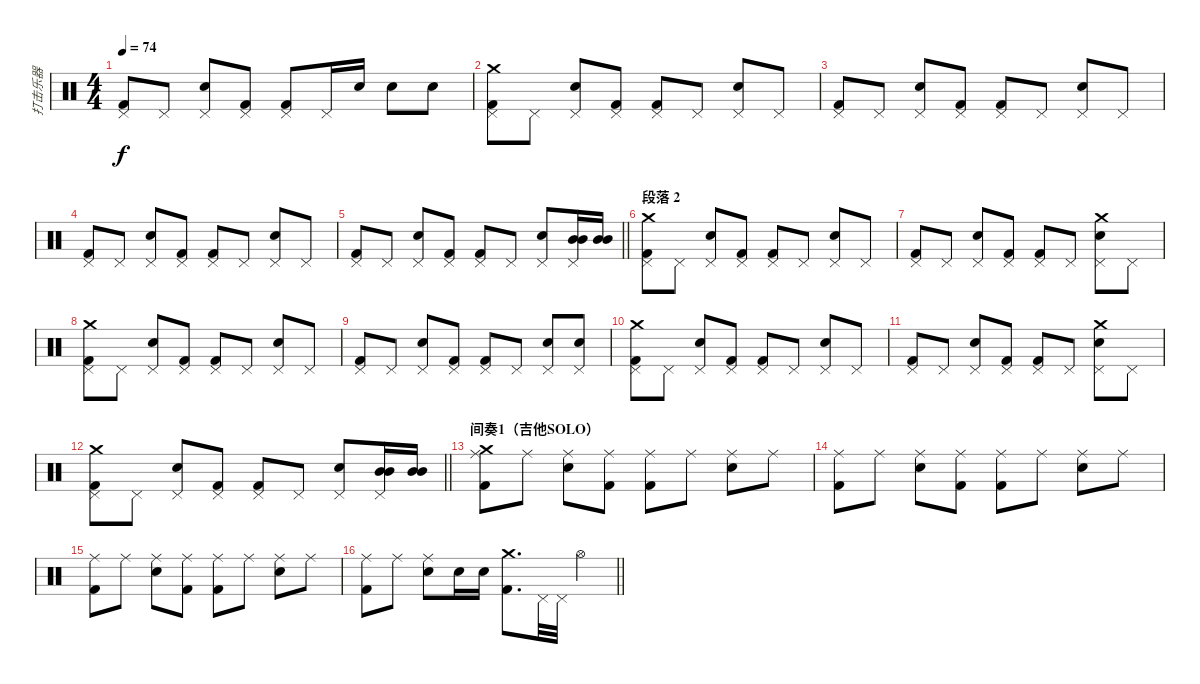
\track ("打击乐器" "打击乐器") {instrument percussion}
\staff {score}
\articulation defaults
\ts (4 4)
\tempo 74
\clef neutral
\ks c
("Pedal Hi-Hat (hit)" "Kick (hit) 2").8{dy f} "Pedal Hi-Hat (hit)".8 ("Pedal Hi-Hat (hit)" "Electric Snare (hit)").8 ("Pedal Hi-Hat (hit)" "Kick (hit) 2").8 ("Pedal Hi-Hat (hit)" "Kick (hit) 2").8 "Pedal Hi-Hat (hit)".16 "Electric Snare (hit)".16 "Electric Snare (hit)".8 "Electric Snare (hit)".8 |
("Pedal Hi-Hat (hit)" "Kick (hit) 2" "Crash medium (hit)").8 "Pedal Hi-Hat (hit)".8 ("Pedal Hi-Hat (hit)" "Electric Snare (hit)").8 ("Pedal Hi-Hat (hit)" "Kick (hit) 2").8 ("Pedal Hi-Hat (hit)" "Kick (hit) 2").8 "Pedal Hi-Hat (hit)".8 ("Pedal Hi-Hat (hit)" "Electric Snare (hit)").8 "Pedal Hi-Hat (hit)".8 |
("Pedal Hi-Hat (hit)" "Kick (hit) 2").8 "Pedal Hi-Hat (hit)".8 ("Pedal Hi-Hat (hit)" "Electric Snare (hit)").8 ("Pedal Hi-Hat (hit)" "Kick (hit) 2").8 ("Pedal Hi-Hat (hit)" "Kick (hit) 2").8 "Pedal Hi-Hat (hit)".8 ("Pedal Hi-Hat (hit)" "Electric Snare (hit)").8 "Pedal Hi-Hat (hit)".8 |
("Pedal Hi-Hat (hit)" "Kick (hit) 2").8 "Pedal Hi-Hat (hit)".8 ("Pedal Hi-Hat (hit)" "Electric Snare (hit)").8 ("Pedal Hi-Hat (hit)" "Kick (hit) 2").8 ("Pedal Hi-Hat (hit)" "Kick (hit) 2").8 "Pedal Hi-Hat (hit)".8 ("Pedal Hi-Hat (hit)" "Electric Snare (hit)").8 "Pedal Hi-Hat (hit)".8 |
\barLineRight lightlight
("Pedal Hi-Hat (hit)" "Kick (hit) 2").8 "Pedal Hi-Hat (hit)".8 ("Pedal Hi-Hat (hit)" "Electric Snare (hit)").8 ("Pedal Hi-Hat (hit)" "Kick (hit) 2").8 ("Pedal Hi-Hat (hit)" "Kick (hit) 2").8 "Pedal Hi-Hat (hit)".8 ("Pedal Hi-Hat (hit)" "Electric Snare (hit)").8 ("Pedal Hi-Hat (hit)" "Mid Tom (hit)" "Mid Tom (hit)").16 ("Mid Tom (hit)" "Mid Tom (hit)").16 |
\section ("" "段落 2")
("Pedal Hi-Hat (hit)" "Kick (hit) 2" "Crash medium (hit)").8 "Pedal Hi-Hat (hit)".8 ("Pedal Hi-Hat (hit)" "Electric Snare (hit)").8 ("Pedal Hi-Hat (hit)" "Kick (hit) 2").8 ("Pedal Hi-Hat (hit)" "Kick (hit) 2").8 "Pedal Hi-Hat (hit)".8 ("Pedal Hi-Hat (hit)" "Electric Snare (hit)").8 "Pedal Hi-Hat (hit)".8 |
("Pedal Hi-Hat (hit)" "Kick (hit) 2").8 "Pedal Hi-Hat (hit)".8 ("Pedal Hi-Hat (hit)" "Electric Snare (hit)").8 ("Pedal Hi-Hat (hit)" "Kick (hit) 2").8 ("Pedal Hi-Hat (hit)" "Kick (hit) 2").8 "Pedal Hi-Hat (hit)".8 ("Pedal Hi-Hat (hit)" "Electric Snare (hit)" "Crash medium (hit)").8 "Pedal Hi-Hat (hit)".8 |
("Pedal Hi-Hat (hit)" "Kick (hit) 2" "Crash medium (hit)").8 "Pedal Hi-Hat (hit)".8 ("Pedal Hi-Hat (hit)" "Electric Snare (hit)").8 ("Pedal Hi-Hat (hit)" "Kick (hit) 2").8 ("Pedal Hi-Hat (hit)" "Kick (hit) 2").8 "Pedal Hi-Hat (hit)".8 ("Pedal Hi-Hat (hit)" "Electric Snare (hit)").8 "Pedal Hi-Hat (hit)".8 |
("Pedal Hi-Hat (hit)" "Kick (hit) 2").8 "Pedal Hi-Hat (hit)".8 ("Pedal Hi-Hat (hit)" "Electric Snare (hit)").8 ("Pedal Hi-Hat (hit)" "Kick (hit) 2").8 ("Pedal Hi-Hat (hit)" "Kick (hit) 2").8 "Pedal Hi-Hat (hit)".8 ("Pedal Hi-Hat (hit)" "Electric Snare (hit)").8 ("Pedal Hi-Hat (hit)" "Electric Snare (hit)").8 |
("Pedal Hi-Hat (hit)" "Kick (hit) 2" "Crash medium (hit)").8 "Pedal Hi-Hat (hit)".8 ("Pedal Hi-Hat (hit)" "Electric Snare (hit)").8 ("Pedal Hi-Hat (hit)" "Kick (hit) 2").8 ("Pedal Hi-Hat (hit)" "Kick (hit) 2").8 "Pedal Hi-Hat (hit)".8 ("Pedal Hi-Hat (hit)" "Electric Snare (hit)").8 "Pedal Hi-Hat (hit)".8 |
("Pedal Hi-Hat (hit)" "Kick (hit) 2").8 "Pedal Hi-Hat (hit)".8 ("Pedal Hi-Hat (hit)" "Electric Snare (hit)").8 ("Pedal Hi-Hat (hit)" "Kick (hit) 2").8 ("Pedal Hi-Hat (hit)" "Kick (hit) 2").8 "Pedal Hi-Hat (hit)".8 ("Pedal Hi-Hat (hit)" "Electric Snare (hit)" "Crash medium (hit)").8 "Pedal Hi-Hat (hit)".8 |
\barLineRight lightlight
("Pedal Hi-Hat (hit)" "Kick (hit) 2" "Crash medium (hit)").8 "Pedal Hi-Hat (hit)".8 ("Pedal Hi-Hat (hit)" "Electric Snare (hit)").8 ("Pedal Hi-Hat (hit)" "Kick (hit) 2").8 ("Pedal Hi-Hat (hit)" "Kick (hit) 2").8 "Pedal Hi-Hat (hit)".8 ("Pedal Hi-Hat (hit)" "Electric Snare (hit)").8 ("Pedal Hi-Hat (hit)" "Mid Tom (hit)" "Mid Tom (hit)").16 ("Mid Tom (hit)" "Mid Tom (hit)").16 |
\section ("" "间奏1（吉他SOLO）")
("Ride (middle)" "Kick (hit) 2" "Crash medium (hit)").8 "Ride (middle)".8 ("Ride (middle)" "Electric Snare (hit)").8 ("Ride (middle)" "Kick (hit) 2").8 ("Ride (middle)" "Kick (hit) 2").8 "Ride (middle)".8 ("Ride (middle)" "Electric Snare (hit)").8 "Ride (middle)".8 |
("Ride (middle)" "Kick (hit) 2").8 "Ride (middle)".8 ("Ride (middle)" "Electric Snare (hit)").8 ("Ride (middle)" "Kick (hit) 2").8 ("Ride (middle)" "Kick (hit) 2").8 "Ride (middle)".8 ("Ride (middle)" "Electric Snare (hit)").8 "Ride (middle)".8 |
("Ride (middle)" "Kick (hit) 2").8 "Ride (middle)".8 ("Ride (middle)" "Electric Snare (hit)").8 ("Ride (middle)" "Kick (hit) 2").8 ("Ride (middle)" "Kick (hit) 2").8 "Ride (middle)".8 ("Ride (middle)" "Electric Snare (hit)").8 "Ride (middle)".8 |
\barLineRight lightlight
("Ride (middle)" "Kick (hit) 2").8 "Ride (middle)".8 ("Ride (middle)" "Electric Snare (hit)").8 "Electric Snare (hit)".16 "Electric Snare (hit)".16 ("Kick (hit) 2" "Crash medium (hit)").8{d} "Pedal Hi-Hat (hit)".32 "Pedal Hi-Hat (hit)".32 "Hi-Hat (open)".4
